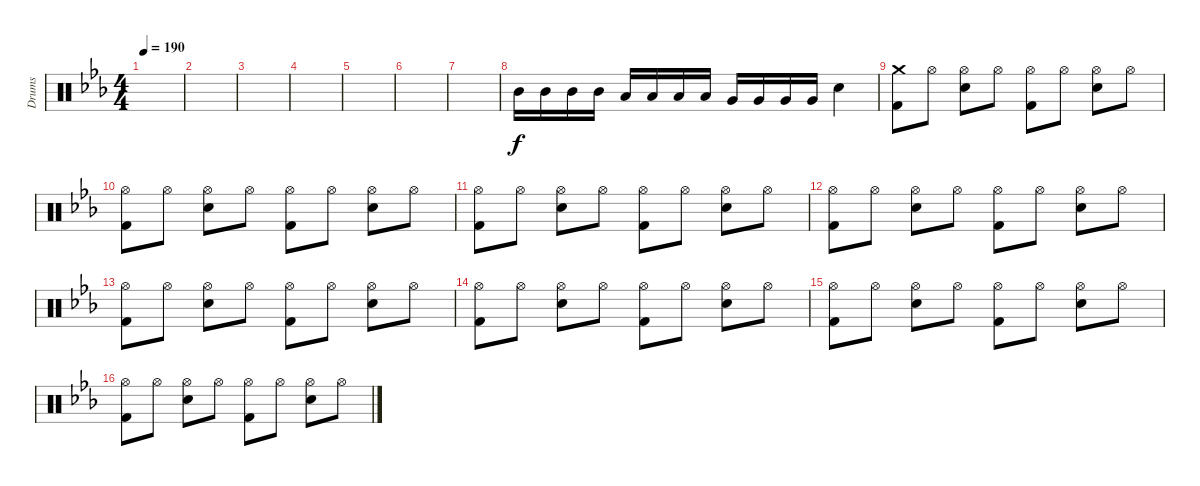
\track ("Drums" "Drums") {instrument percussion}
\staff {score}
\articulation defaults
\ts (4 4)
\tempo 190
\clef neutral
\ks eb
|
|
|
|
|
|
|
"Mid Tom (hit)".16 "Mid Tom (hit)".16 "Mid Tom (hit)".16 "Mid Tom (hit)".16 "Low Tom (hit)".16 "Low Tom (hit)".16 "Low Tom (hit)".16 "Low Tom (hit)".16 "Very Low Tom (hit)".16 "Very Low Tom (hit)".16 "Very Low Tom (hit)".16 "Very Low Tom (hit)".16 "Electric Snare (hit)".4 |
("Crash medium (hit)" "Kick (hit) 2").8 "Hi-Hat (open)".8 ("Hi-Hat (open)" "Electric Snare (hit)").8 "Hi-Hat (open)".8 ("Hi-Hat (open)" "Kick (hit) 2").8 "Hi-Hat (open)".8 ("Hi-Hat (open)" "Electric Snare (hit)").8 "Hi-Hat (open)".8 |
("Hi-Hat (open)" "Kick (hit) 2").8 "Hi-Hat (open)".8 ("Hi-Hat (open)" "Electric Snare (hit)").8 "Hi-Hat (open)".8 ("Hi-Hat (open)" "Kick (hit) 2").8 "Hi-Hat (open)".8 ("Hi-Hat (open)" "Electric Snare (hit)").8 "Hi-Hat (open)".8 |
("Hi-Hat (open)" "Kick (hit) 2").8 "Hi-Hat (open)".8 ("Hi-Hat (open)" "Electric Snare (hit)").8 "Hi-Hat (open)".8 ("Hi-Hat (open)" "Kick (hit) 2").8 "Hi-Hat (open)".8 ("Hi-Hat (open)" "Electric Snare (hit)").8 "Hi-Hat (open)".8 |
("Hi-Hat (open)" "Kick (hit) 2").8 "Hi-Hat (open)".8 ("Hi-Hat (open)" "Electric Snare (hit)").8 "Hi-Hat (open)".8 ("Hi-Hat (open)" "Kick (hit) 2").8 "Hi-Hat (open)".8 ("Hi-Hat (open)" "Electric Snare (hit)").8 "Hi-Hat (open)".8 |
("Hi-Hat (open)" "Kick (hit) 2").8 "Hi-Hat (open)".8 ("Hi-Hat (open)" "Electric Snare (hit)").8 "Hi-Hat (open)".8 ("Hi-Hat (open)" "Kick (hit) 2").8 "Hi-Hat (open)".8 ("Hi-Hat (open)" "Electric Snare (hit)").8 "Hi-Hat (open)".8 |
("Hi-Hat (open)" "Kick (hit) 2").8 "Hi-Hat (open)".8 ("Hi-Hat (open)" "Electric Snare (hit)").8 "Hi-Hat (open)".8 ("Hi-Hat (open)" "Kick (hit) 2").8 "Hi-Hat (open)".8 ("Hi-Hat (open)" "Electric Snare (hit)").8 "Hi-Hat (open)".8 |
("Hi-Hat (open)" "Kick (hit) 2").8 "Hi-Hat (open)".8 ("Hi-Hat (open)" "Electric Snare (hit)").8 "Hi-Hat (open)".8 ("Hi-Hat (open)" "Kick (hit) 2").8 "Hi-Hat (open)".8 ("Hi-Hat (open)" "Electric Snare (hit)").8 "Hi-Hat (open)".8 |
("Hi-Hat (open)" "Kick (hit) 2").8 "Hi-Hat (open)".8 ("Hi-Hat (open)" "Electric Snare (hit)").8 "Hi-Hat (open)".8 ("Hi-Hat (open)" "Kick (hit) 2").8 "Hi-Hat (open)".8 ("Hi-Hat (open)" "Electric Snare (hit)").8 "Hi-Hat (open)".8
